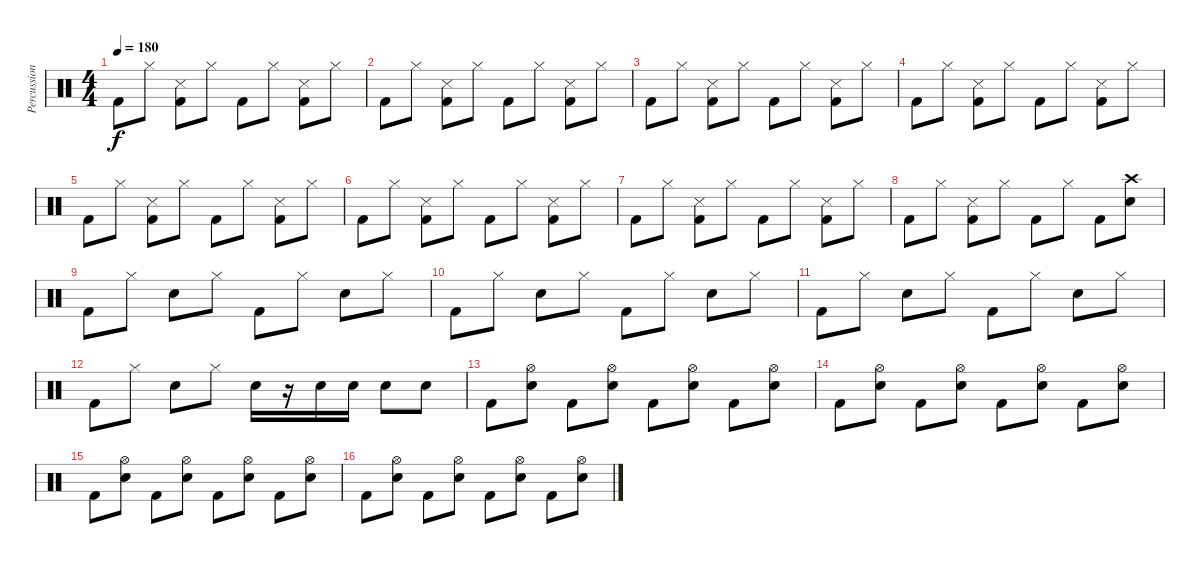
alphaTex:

\track ("Percussion" "Percussion") {instrument percussion}
\staff {score}
\articulation defaults
\ts (4 4)
\tempo 180
\clef neutral
\ks c "Kick (hit) 2".8{dy f} "Hi-Hat (closed)".8
("Snare (side stick) 3" "Kick (hit) 2").8 "Hi-Hat (closed)".8 "Kick (hit) 2".8 "Hi-Hat (closed)".8 ("Snare (side stick) 3" "Kick (hit) 2").8 "Hi-Hat (closed)".8 |
"Kick (hit) 2".8 "Hi-Hat (closed)".8 ("Snare (side stick) 3" "Kick (hit) 2").8 "Hi-Hat (closed)".8 "Kick (hit) 2".8 "Hi-Hat (closed)".8 ("Snare (side stick) 3" "Kick (hit) 2").8 "Hi-Hat (closed)".8 |
"Kick (hit) 2".8 "Hi-Hat (closed)".8 ("Snare (side stick) 3" "Kick (hit) 2").8 "Hi-Hat (closed)".8 "Kick (hit) 2".8 "Hi-Hat (closed)".8 ("Snare (side stick) 3" "Kick (hit) 2").8 "Hi-Hat (closed)".8 |
"Kick (hit) 2".8 "Hi-Hat (closed)".8 ("Snare (side stick) 3" "Kick (hit) 2").8 "Hi-Hat (closed)".8 "Kick (hit) 2".8 "Hi-Hat (closed)".8 ("Snare (side stick) 3" "Kick (hit) 2").8 "Hi-Hat (closed)".8 |
"Kick (hit) 2".8 "Hi-Hat (closed)".8 ("Snare (side stick) 3" "Kick (hit) 2").8 "Hi-Hat (closed)".8 "Kick (hit) 2".8 "Hi-Hat (closed)".8 ("Snare (side stick) 3" "Kick (hit) 2").8 "Hi-Hat (closed)".8 |
"Kick (hit) 2".8 "Hi-Hat (closed)".8 ("Snare (side stick) 3" "Kick (hit) 2").8 "Hi-Hat (closed)".8 "Kick (hit) 2".8 "Hi-Hat (closed)".8 ("Snare (side stick) 3" "Kick (hit) 2").8 "Hi-Hat (closed)".8 |
"Kick (hit) 2".8 "Hi-Hat (closed)".8 ("Snare (side stick) 3" "Kick (hit) 2").8 "Hi-Hat (closed)".8 "Kick (hit) 2".8 "Hi-Hat (closed)".8 ("Snare (side stick) 3" "Kick (hit) 2").8 "Hi-Hat (closed)".8 |
"Kick (hit) 2".8 "Hi-Hat (closed)".8 ("Snare (side stick) 3" "Kick (hit) 2").8 "Hi-Hat (closed)".8 "Kick (hit) 2".8 "Hi-Hat (closed)".8 "Kick (hit) 2".8 ("Crash high (hit)" "Electric Snare (hit)").8 |
"Kick (hit) 2".8 "Hi-Hat (closed)".8 "Electric Snare (hit)".8 "Hi-Hat (closed)".8 "Kick (hit) 2".8 "Hi-Hat (closed)".8 "Electric Snare (hit)".8 "Hi-Hat (closed)".8 |
"Kick (hit) 2".8 "Hi-Hat (closed)".8 "Electric Snare (hit)".8 "Hi-Hat (closed)".8 "Kick (hit) 2".8 "Hi-Hat (closed)".8 "Electric Snare (hit)".8 "Hi-Hat (closed)".8 |
"Kick (hit) 2".8 "Hi-Hat (closed)".8 "Electric Snare (hit)".8 "Hi-Hat (closed)".8 "Kick (hit) 2".8 "Hi-Hat (closed)".8 "Electric Snare (hit)".8 "Hi-Hat (closed)".8 |
"Kick (hit) 2".8 "Hi-Hat (closed)".8 "Electric Snare (hit)".8 "Hi-Hat (closed)".8 "Electric Snare (hit)".16 r.16 "Electric Snare (hit)".16 "Electric Snare (hit)".16 "Electric Snare (hit)".8 "Electric Snare (hit)".8 |
"Kick (hit) 2".8 ("Hi-Hat (open)" "Electric Snare (hit)").8 "Kick (hit) 2".8 ("Hi-Hat (open)" "Electric Snare (hit)").8 "Kick (hit) 2".8 ("Hi-Hat (open)" "Electric Snare (hit)").8 "Kick (hit) 2".8 ("Hi-Hat (open)" "Electric Snare (hit)").8 |
"Kick (hit) 2".8 ("Hi-Hat (open)" "Electric Snare (hit)").8 "Kick (hit) 2".8 ("Hi-Hat (open)" "Electric Snare (hit)").8 "Kick (hit) 2".8 ("Hi-Hat (open)" "Electric Snare (hit)").8 "Kick (hit) 2".8 ("Hi-Hat (open)" "Electric Snare (hit)").8 |
"Kick (hit) 2".8 ("Hi-Hat (open)" "Electric Snare (hit)").8 "Kick (hit) 2".8 ("Hi-Hat (open)" "Electric Snare (hit)").8 "Kick (hit) 2".8 ("Hi-Hat (open)" "Electric Snare (hit)").8 "Kick (hit) 2".8 ("Hi-Hat (open)" "Electric Snare (hit)").8 |
"Kick (hit) 2".8 ("Hi-Hat (open)" "Electric Snare (hit)").8 "Kick (hit) 2".8 ("Hi-Hat (open)" "Electric Snare (hit)").8 "Kick (hit) 2".8 ("Hi-Hat (open)" "Electric Snare (hit)").8 "Kick (hit) 2".8 ("Hi-Hat (open)" "Electric Snare (hit)").8
